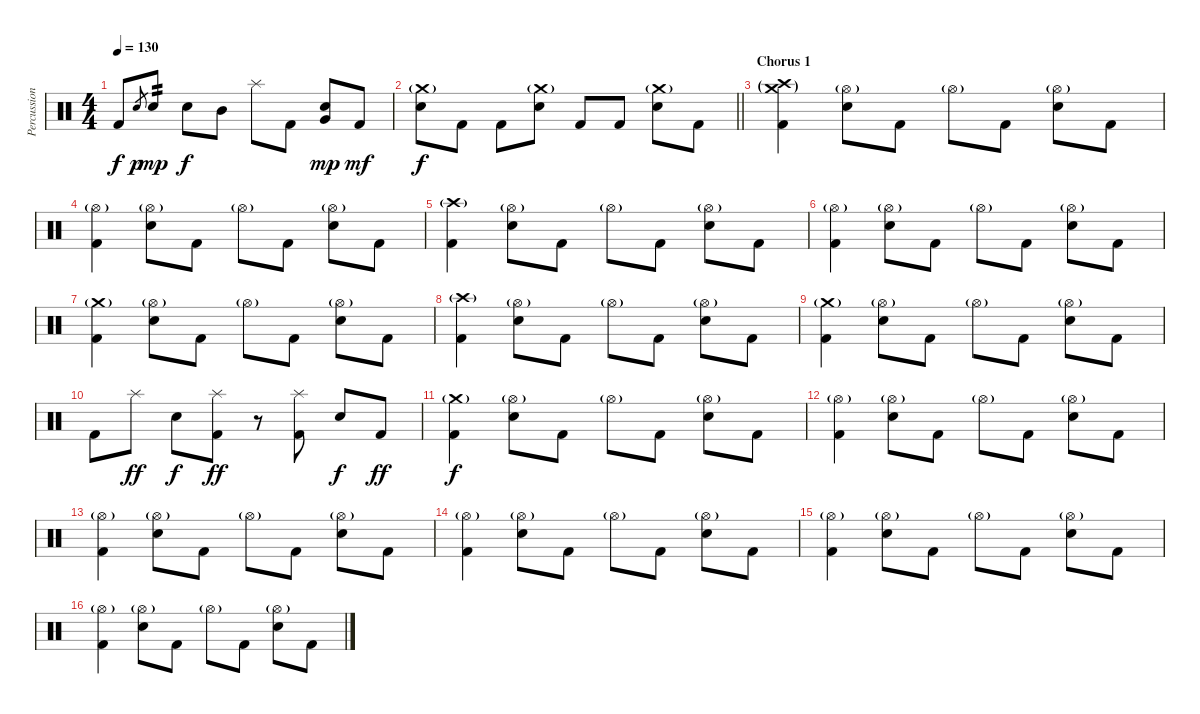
\track ("Percussion" "Percussion") {instrument percussion}
\staff {score}
\articulation defaults
\ts (4 4)
\tempo 130
\clef neutral
\ks c "Kick (hit) 2".8{dy f} "Electric Snare (hit)".8{gr dy p} "Electric Snare (hit)".8{tp 2 dy mp} "Electric Snare (hit)".8{dy f} "Mid Tom (hit)".8 "Splash (hit)".8 "Kick (hit) 2".8
("Electric Snare (hit)" "Very Low Tom (hit)").8{dy mp} "Kick (hit) 2".8{dy mf} |
\barLineRight lightlight
("Crash medium (hit)"{g} "Electric Snare (hit)").8{dy f} "Kick (hit) 2".8 "Kick (hit) 2".8 ("Crash medium (hit)"{g} "Electric Snare (hit)").8 "Kick (hit) 2".8 "Kick (hit) 2".8 ("Crash medium (hit)"{g} "Electric Snare (hit)").8 "Kick (hit) 2".8 |
\section ("" "Chorus 1")
("Crash medium (hit)"{g} "Crash high (hit)"{g} "Kick (hit) 2").4 ("Hi-Hat (open)"{g} "Electric Snare (hit)").8 "Kick (hit) 2".8 "Hi-Hat (open)"{g}.8 "Kick (hit) 2".8 ("Hi-Hat (open)"{g} "Electric Snare (hit)").8 "Kick (hit) 2".8 |
("Hi-Hat (open)"{g} "Kick (hit) 2").4 ("Hi-Hat (open)"{g} "Electric Snare (hit)").8 "Kick (hit) 2".8 "Hi-Hat (open)"{g}.8 "Kick (hit) 2".8 ("Hi-Hat (open)"{g} "Electric Snare (hit)").8 "Kick (hit) 2".8 |
("Crash high (hit)"{g} "Kick (hit) 2").4 ("Hi-Hat (open)"{g} "Electric Snare (hit)").8 "Kick (hit) 2".8 "Hi-Hat (open)"{g}.8 "Kick (hit) 2".8 ("Hi-Hat (open)"{g} "Electric Snare (hit)").8 "Kick (hit) 2".8 |
("Hi-Hat (open)"{g} "Kick (hit) 2").4 ("Hi-Hat (open)"{g} "Electric Snare (hit)").8 "Kick (hit) 2".8 "Hi-Hat (open)"{g}.8 "Kick (hit) 2".8 ("Hi-Hat (open)"{g} "Electric Snare (hit)").8 "Kick (hit) 2".8 |
("Crash medium (hit)"{g} "Kick (hit) 2").4 ("Hi-Hat (open)"{g} "Electric Snare (hit)").8 "Kick (hit) 2".8 "Hi-Hat (open)"{g}.8 "Kick (hit) 2".8 ("Hi-Hat (open)"{g} "Electric Snare (hit)").8 "Kick (hit) 2".8 |
("Crash high (hit)"{g} "Kick (hit) 2").4 ("Hi-Hat (open)"{g} "Electric Snare (hit)").8 "Kick (hit) 2".8 "Hi-Hat (open)"{g}.8 "Kick (hit) 2".8 ("Hi-Hat (open)"{g} "Electric Snare (hit)").8 "Kick (hit) 2".8 |
("Crash medium (hit)"{g} "Kick (hit) 2").4 ("Hi-Hat (open)"{g} "Electric Snare (hit)").8 "Kick (hit) 2".8 "Hi-Hat (open)"{g}.8 "Kick (hit) 2".8 ("Hi-Hat (open)"{g} "Electric Snare (hit)").8 "Kick (hit) 2".8 |
"Kick (hit) 2".8 "Splash (hit)".8{dy ff} "Electric Snare (hit)".8{dy f} ("Splash (hit)" "Kick (hit) 2").8{dy ff} r.8 ("Splash (hit)" "Kick (hit) 2").8 "Electric Snare (hit)".8{dy f} "Kick (hit) 2".8{dy ff} |
("Crash medium (hit)"{g} "Kick (hit) 2").4{dy f} ("Hi-Hat (open)"{g} "Electric Snare (hit)").8 "Kick (hit) 2".8 "Hi-Hat (open)"{g}.8 "Kick (hit) 2".8 ("Hi-Hat (open)"{g} "Electric Snare (hit)").8 "Kick (hit) 2".8 |
("Hi-Hat (open)"{g} "Kick (hit) 2").4 ("Hi-Hat (open)"{g} "Electric Snare (hit)").8 "Kick (hit) 2".8 "Hi-Hat (open)"{g}.8 "Kick (hit) 2".8 ("Hi-Hat (open)"{g} "Electric Snare (hit)").8 "Kick (hit) 2".8 |
("Hi-Hat (open)"{g} "Kick (hit) 2").4 ("Hi-Hat (open)"{g} "Electric Snare (hit)").8 "Kick (hit) 2".8 "Hi-Hat (open)"{g}.8 "Kick (hit) 2".8 ("Hi-Hat (open)"{g} "Electric Snare (hit)").8 "Kick (hit) 2".8 |
("Hi-Hat (open)"{g} "Kick (hit) 2").4 ("Hi-Hat (open)"{g} "Electric Snare (hit)").8 "Kick (hit) 2".8 "Hi-Hat (open)"{g}.8 "Kick (hit) 2".8 ("Hi-Hat (open)"{g} "Electric Snare (hit)").8 "Kick (hit) 2".8 |
("Hi-Hat (open)"{g} "Kick (hit) 2").4 ("Hi-Hat (open)"{g} "Electric Snare (hit)").8 "Kick (hit) 2".8 "Hi-Hat (open)"{g}.8 "Kick (hit) 2".8 ("Hi-Hat (open)"{g} "Electric Snare (hit)").8 "Kick (hit) 2".8 |
("Hi-Hat (open)"{g} "Kick (hit) 2").4 ("Hi-Hat (open)"{g} "Electric Snare (hit)").8 "Kick (hit) 2".8 "Hi-Hat (open)"{g}.8 "Kick (hit) 2".8 ("Hi-Hat (open)"{g} "Electric Snare (hit)").8 "Kick (hit) 2".8
